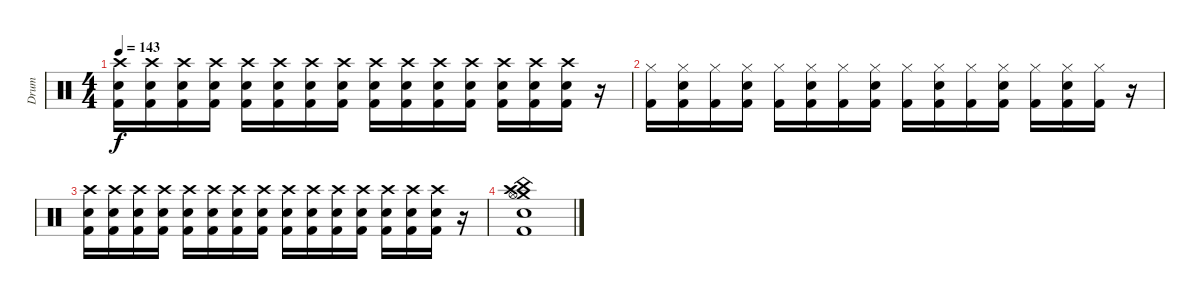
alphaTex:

\track ("Drum" "Drum") {instrument percussion}
\staff {score}
\articulation defaults
\ts (4 4)
\tempo 143
\clef neutral
\ks c
("Snare (hit) 2" "Kick (hit) 2" "Crash high (hit)").16{dy f} ("Snare (hit) 2" "Kick (hit) 2" "Crash high (hit)").16 ("Snare (hit) 2" "Kick (hit) 2" "Crash high (hit)").16 ("Snare (hit) 2" "Kick (hit) 2" "Crash high (hit)").16 ("Snare (hit) 2" "Kick (hit) 2" "Crash high (hit)").16 ("Snare (hit) 2" "Kick (hit) 2" "Crash high (hit)").16 ("Snare (hit) 2" "Kick (hit) 2" "Crash high (hit)").16 ("Snare (hit) 2" "Kick (hit) 2" "Crash high (hit)").16 ("Snare (hit) 2" "Kick (hit) 2" "Crash high (hit)").16 ("Snare (hit) 2" "Kick (hit) 2" "Crash high (hit)").16 ("Snare (hit) 2" "Kick (hit) 2" "Crash high (hit)").16 ("Snare (hit) 2" "Kick (hit) 2" "Crash high (hit)").16 ("Snare (hit) 2" "Kick (hit) 2" "Crash high (hit)").16 ("Snare (hit) 2" "Kick (hit) 2" "Crash high (hit)").16 ("Snare (hit) 2" "Kick (hit) 2" "Crash high (hit)").16 r.16 |
("Kick (hit) 2" "Hi-Hat (closed)").16 ("Kick (hit) 2" "Snare (hit) 2" "Hi-Hat (closed)").16 ("Kick (hit) 2" "Hi-Hat (closed)").16 ("Kick (hit) 2" "Snare (hit) 2" "Hi-Hat (closed)").16 ("Kick (hit) 2" "Hi-Hat (closed)").16 ("Kick (hit) 2" "Snare (hit) 2" "Hi-Hat (closed)").16 ("Kick (hit) 2" "Hi-Hat (closed)").16 ("Kick (hit) 2" "Snare (hit) 2" "Hi-Hat (closed)").16 ("Kick (hit) 2" "Hi-Hat (closed)").16 ("Kick (hit) 2" "Snare (hit) 2" "Hi-Hat (closed)").16 ("Kick (hit) 2" "Hi-Hat (closed)").16 ("Kick (hit) 2" "Snare (hit) 2" "Hi-Hat (closed)").16 ("Kick (hit) 2" "Hi-Hat (closed)").16 ("Kick (hit) 2" "Snare (hit) 2" "Hi-Hat (closed)").16 ("Kick (hit) 2" "Hi-Hat (closed)").16 r.16 |
("Snare (hit) 2" "Kick (hit) 2" "Crash high (hit)").16 ("Snare (hit) 2" "Kick (hit) 2" "Crash high (hit)").16 ("Snare (hit) 2" "Kick (hit) 2" "Crash high (hit)").16 ("Snare (hit) 2" "Kick (hit) 2" "Crash high (hit)").16 ("Snare (hit) 2" "Kick (hit) 2" "Crash high (hit)").16 ("Snare (hit) 2" "Kick (hit) 2" "Crash high (hit)").16 ("Snare (hit) 2" "Kick (hit) 2" "Crash high (hit)").16 ("Snare (hit) 2" "Kick (hit) 2" "Crash high (hit)").16 ("Snare (hit) 2" "Kick (hit) 2" "Crash high (hit)").16 ("Snare (hit) 2" "Kick (hit) 2" "Crash high (hit)").16 ("Snare (hit) 2" "Kick (hit) 2" "Crash high (hit)").16 ("Snare (hit) 2" "Kick (hit) 2" "Crash high (hit)").16 ("Snare (hit) 2" "Kick (hit) 2" "Crash high (hit)").16 ("Snare (hit) 2" "Kick (hit) 2" "Crash high (hit)").16 ("Snare (hit) 2" "Kick (hit) 2" "Crash high (hit)").16 r.16 |
("Crash medium (hit)" "China (hit)" "Crash high (hit)" "Hi-Hat (open)" "Kick (hit) 2" "Snare (hit) 2").1
